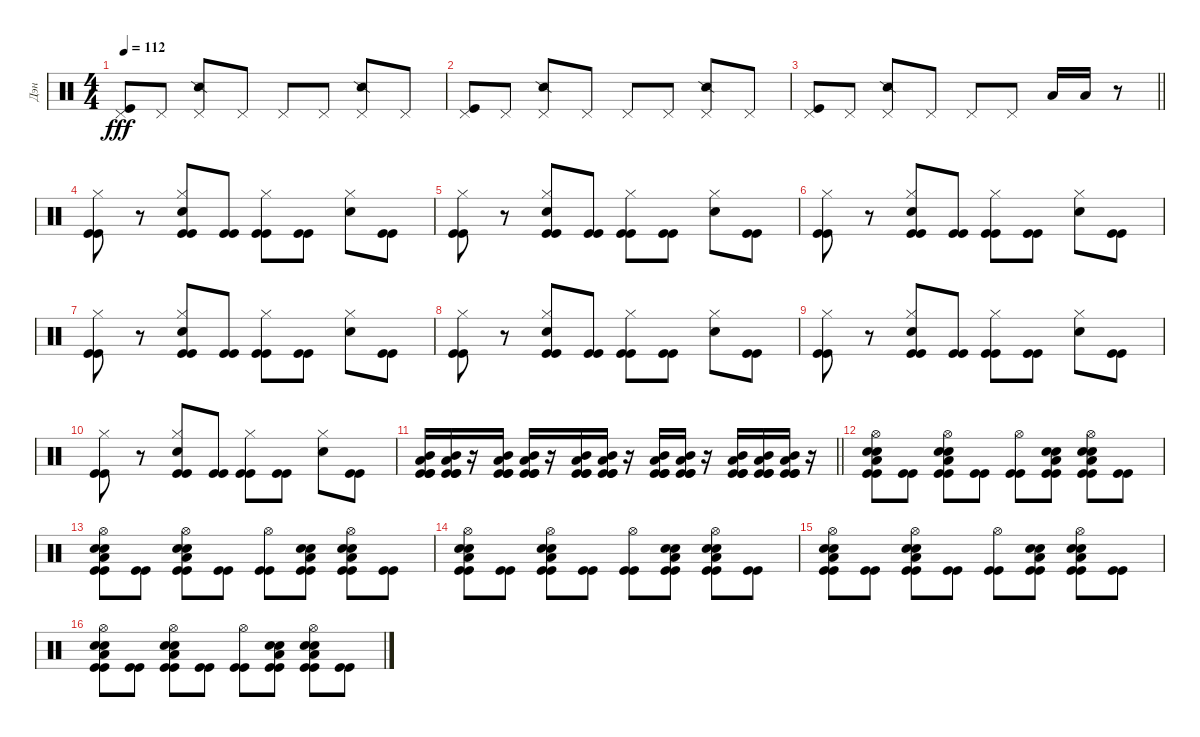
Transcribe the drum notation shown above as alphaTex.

\track ("Дэн" "Дэн") {instrument percussion}
\staff {score}
\articulation defaults
\ts (4 4)
\tempo 112
\clef neutral
\ks c
("Pedal Hi-Hat (hit)" "Kick (hit)").8{dy fff} "Pedal Hi-Hat (hit)".8 ("Pedal Hi-Hat (hit)" "Snare (side stick) 2").8 "Pedal Hi-Hat (hit)".8 "Pedal Hi-Hat (hit)".8 "Pedal Hi-Hat (hit)".8 ("Pedal Hi-Hat (hit)" "Snare (side stick) 2").8 "Pedal Hi-Hat (hit)".8 |
("Pedal Hi-Hat (hit)" "Kick (hit)").8 "Pedal Hi-Hat (hit)".8 ("Pedal Hi-Hat (hit)" "Snare (side stick) 2").8 "Pedal Hi-Hat (hit)".8 "Pedal Hi-Hat (hit)".8 "Pedal Hi-Hat (hit)".8 ("Pedal Hi-Hat (hit)" "Snare (side stick) 2").8 "Pedal Hi-Hat (hit)".8 |
\barLineRight lightlight
("Pedal Hi-Hat (hit)" "Kick (hit)").8 "Pedal Hi-Hat (hit)".8 ("Pedal Hi-Hat (hit)" "Snare (side stick) 2").8 "Pedal Hi-Hat (hit)".8 "Pedal Hi-Hat (hit)".8 "Pedal Hi-Hat (hit)".8 "Low Tom (hit)".16 "Low Tom (hit)".16 r.8 |
("Hi-Hat (closed)" "Kick (hit)" "Kick (hit)").8 r.8 ("Hi-Hat (closed)" "Kick (hit)" "Kick (hit)" "Electric Snare (hit)").8 ("Kick (hit)" "Kick (hit)").8 ("Hi-Hat (closed)" "Kick (hit)" "Kick (hit)").8 ("Kick (hit)" "Kick (hit)").8 ("Hi-Hat (closed)" "Electric Snare (hit)").8 ("Kick (hit)" "Kick (hit)").8 |
("Hi-Hat (closed)" "Kick (hit)" "Kick (hit)").8 r.8 ("Hi-Hat (closed)" "Kick (hit)" "Kick (hit)" "Electric Snare (hit)").8 ("Kick (hit)" "Kick (hit)").8 ("Hi-Hat (closed)" "Kick (hit)" "Kick (hit)").8 ("Kick (hit)" "Kick (hit)").8 ("Hi-Hat (closed)" "Electric Snare (hit)").8 ("Kick (hit)" "Kick (hit)").8 |
("Hi-Hat (closed)" "Kick (hit)" "Kick (hit)").8 r.8 ("Hi-Hat (closed)" "Kick (hit)" "Kick (hit)" "Electric Snare (hit)").8 ("Kick (hit)" "Kick (hit)").8 ("Hi-Hat (closed)" "Kick (hit)" "Kick (hit)").8 ("Kick (hit)" "Kick (hit)").8 ("Hi-Hat (closed)" "Electric Snare (hit)").8 ("Kick (hit)" "Kick (hit)").8 |
("Hi-Hat (closed)" "Kick (hit)" "Kick (hit)").8 r.8 ("Hi-Hat (closed)" "Kick (hit)" "Kick (hit)" "Electric Snare (hit)").8 ("Kick (hit)" "Kick (hit)").8 ("Hi-Hat (closed)" "Kick (hit)" "Kick (hit)").8 ("Kick (hit)" "Kick (hit)").8 ("Hi-Hat (closed)" "Electric Snare (hit)").8 ("Kick (hit)" "Kick (hit)").8 |
("Hi-Hat (closed)" "Kick (hit)" "Kick (hit)").8 r.8 ("Hi-Hat (closed)" "Kick (hit)" "Kick (hit)" "Electric Snare (hit)").8 ("Kick (hit)" "Kick (hit)").8 ("Hi-Hat (closed)" "Kick (hit)" "Kick (hit)").8 ("Kick (hit)" "Kick (hit)").8 ("Hi-Hat (closed)" "Electric Snare (hit)").8 ("Kick (hit)" "Kick (hit)").8 |
("Hi-Hat (closed)" "Kick (hit)" "Kick (hit)").8 r.8 ("Hi-Hat (closed)" "Kick (hit)" "Kick (hit)" "Electric Snare (hit)").8 ("Kick (hit)" "Kick (hit)").8 ("Hi-Hat (closed)" "Kick (hit)" "Kick (hit)").8 ("Kick (hit)" "Kick (hit)").8 ("Hi-Hat (closed)" "Electric Snare (hit)").8 ("Kick (hit)" "Kick (hit)").8 |
("Hi-Hat (closed)" "Kick (hit)" "Kick (hit)").8 r.8 ("Hi-Hat (closed)" "Kick (hit)" "Kick (hit)" "Electric Snare (hit)").8 ("Kick (hit)" "Kick (hit)").8 ("Hi-Hat (closed)" "Kick (hit)" "Kick (hit)").8 ("Kick (hit)" "Kick (hit)").8 ("Hi-Hat (closed)" "Electric Snare (hit)").8 ("Kick (hit)" "Kick (hit)").8 |
\barLineRight lightlight
("Kick (hit)" "Kick (hit)" "Kick (hit)" "Low Tom (hit)" "Mid Tom (hit)").16 ("Kick (hit)" "Kick (hit)" "Kick (hit)" "Low Tom (hit)" "Mid Tom (hit)").16 r.16 ("Kick (hit)" "Kick (hit)" "Kick (hit)" "Low Tom (hit)" "Mid Tom (hit)").16 ("Kick (hit)" "Kick (hit)" "Kick (hit)" "Low Tom (hit)" "Mid Tom (hit)").16 r.16 ("Kick (hit)" "Kick (hit)" "Kick (hit)" "Low Tom (hit)" "Mid Tom (hit)").16 ("Kick (hit)" "Kick (hit)" "Kick (hit)" "Low Tom (hit)" "Mid Tom (hit)").16 r.16 ("Kick (hit)" "Kick (hit)" "Kick (hit)" "Low Tom (hit)" "Mid Tom (hit)").16 ("Kick (hit)" "Kick (hit)" "Kick (hit)" "Low Tom (hit)" "Mid Tom (hit)").16 r.16 ("Kick (hit)" "Kick (hit)" "Kick (hit)" "Low Tom (hit)" "Mid Tom (hit)").16 ("Kick (hit)" "Kick (hit)" "Kick (hit)" "Low Tom (hit)" "Mid Tom (hit)").16 ("Kick (hit)" "Kick (hit)" "Kick (hit)" "Low Tom (hit)" "Mid Tom (hit)").16 r.16 |
("Hi-Hat (open)" "Kick (hit)" "Kick (hit)" "Electric Snare (hit)" "Electric Snare (hit)" "Low Tom (hit)").8 ("Kick (hit)" "Kick (hit)").8 ("Hi-Hat (open)" "Kick (hit)" "Kick (hit)" "Electric Snare (hit)" "Electric Snare (hit)" "Low Tom (hit)").8 ("Kick (hit)" "Kick (hit)").8 ("Hi-Hat (open)" "Kick (hit)" "Kick (hit)").8 ("Kick (hit)" "Kick (hit)" "Electric Snare (hit)" "Electric Snare (hit)" "Low Tom (hit)").8 ("Hi-Hat (open)" "Kick (hit)" "Kick (hit)" "Electric Snare (hit)" "Electric Snare (hit)" "Low Tom (hit)").8 ("Kick (hit)" "Kick (hit)").8 |
("Hi-Hat (open)" "Kick (hit)" "Kick (hit)" "Electric Snare (hit)" "Electric Snare (hit)" "Low Tom (hit)").8 ("Kick (hit)" "Kick (hit)").8 ("Hi-Hat (open)" "Kick (hit)" "Kick (hit)" "Electric Snare (hit)" "Electric Snare (hit)" "Low Tom (hit)").8 ("Kick (hit)" "Kick (hit)").8 ("Hi-Hat (open)" "Kick (hit)" "Kick (hit)").8 ("Kick (hit)" "Kick (hit)" "Electric Snare (hit)" "Electric Snare (hit)" "Low Tom (hit)").8 ("Hi-Hat (open)" "Kick (hit)" "Kick (hit)" "Electric Snare (hit)" "Electric Snare (hit)" "Low Tom (hit)").8 ("Kick (hit)" "Kick (hit)").8 |
("Hi-Hat (open)" "Kick (hit)" "Kick (hit)" "Electric Snare (hit)" "Electric Snare (hit)" "Low Tom (hit)").8 ("Kick (hit)" "Kick (hit)").8 ("Hi-Hat (open)" "Kick (hit)" "Kick (hit)" "Electric Snare (hit)" "Electric Snare (hit)" "Low Tom (hit)").8 ("Kick (hit)" "Kick (hit)").8 ("Hi-Hat (open)" "Kick (hit)" "Kick (hit)").8 ("Kick (hit)" "Kick (hit)" "Electric Snare (hit)" "Electric Snare (hit)" "Low Tom (hit)").8 ("Hi-Hat (open)" "Kick (hit)" "Kick (hit)" "Electric Snare (hit)" "Electric Snare (hit)" "Low Tom (hit)").8 ("Kick (hit)" "Kick (hit)").8 |
("Hi-Hat (open)" "Kick (hit)" "Kick (hit)" "Electric Snare (hit)" "Electric Snare (hit)" "Low Tom (hit)").8 ("Kick (hit)" "Kick (hit)").8 ("Hi-Hat (open)" "Kick (hit)" "Kick (hit)" "Electric Snare (hit)" "Electric Snare (hit)" "Low Tom (hit)").8 ("Kick (hit)" "Kick (hit)").8 ("Hi-Hat (open)" "Kick (hit)" "Kick (hit)").8 ("Kick (hit)" "Kick (hit)" "Electric Snare (hit)" "Electric Snare (hit)" "Low Tom (hit)").8 ("Hi-Hat (open)" "Kick (hit)" "Kick (hit)" "Electric Snare (hit)" "Electric Snare (hit)" "Low Tom (hit)").8 ("Kick (hit)" "Kick (hit)").8 |
("Hi-Hat (open)" "Kick (hit)" "Kick (hit)" "Electric Snare (hit)" "Electric Snare (hit)" "Low Tom (hit)").8 ("Kick (hit)" "Kick (hit)").8 ("Hi-Hat (open)" "Kick (hit)" "Kick (hit)" "Electric Snare (hit)" "Electric Snare (hit)" "Low Tom (hit)").8 ("Kick (hit)" "Kick (hit)").8 ("Hi-Hat (open)" "Kick (hit)" "Kick (hit)").8 ("Kick (hit)" "Kick (hit)" "Electric Snare (hit)" "Electric Snare (hit)" "Low Tom (hit)").8 ("Hi-Hat (open)" "Kick (hit)" "Kick (hit)" "Electric Snare (hit)" "Electric Snare (hit)" "Low Tom (hit)").8 ("Kick (hit)" "Kick (hit)").8
